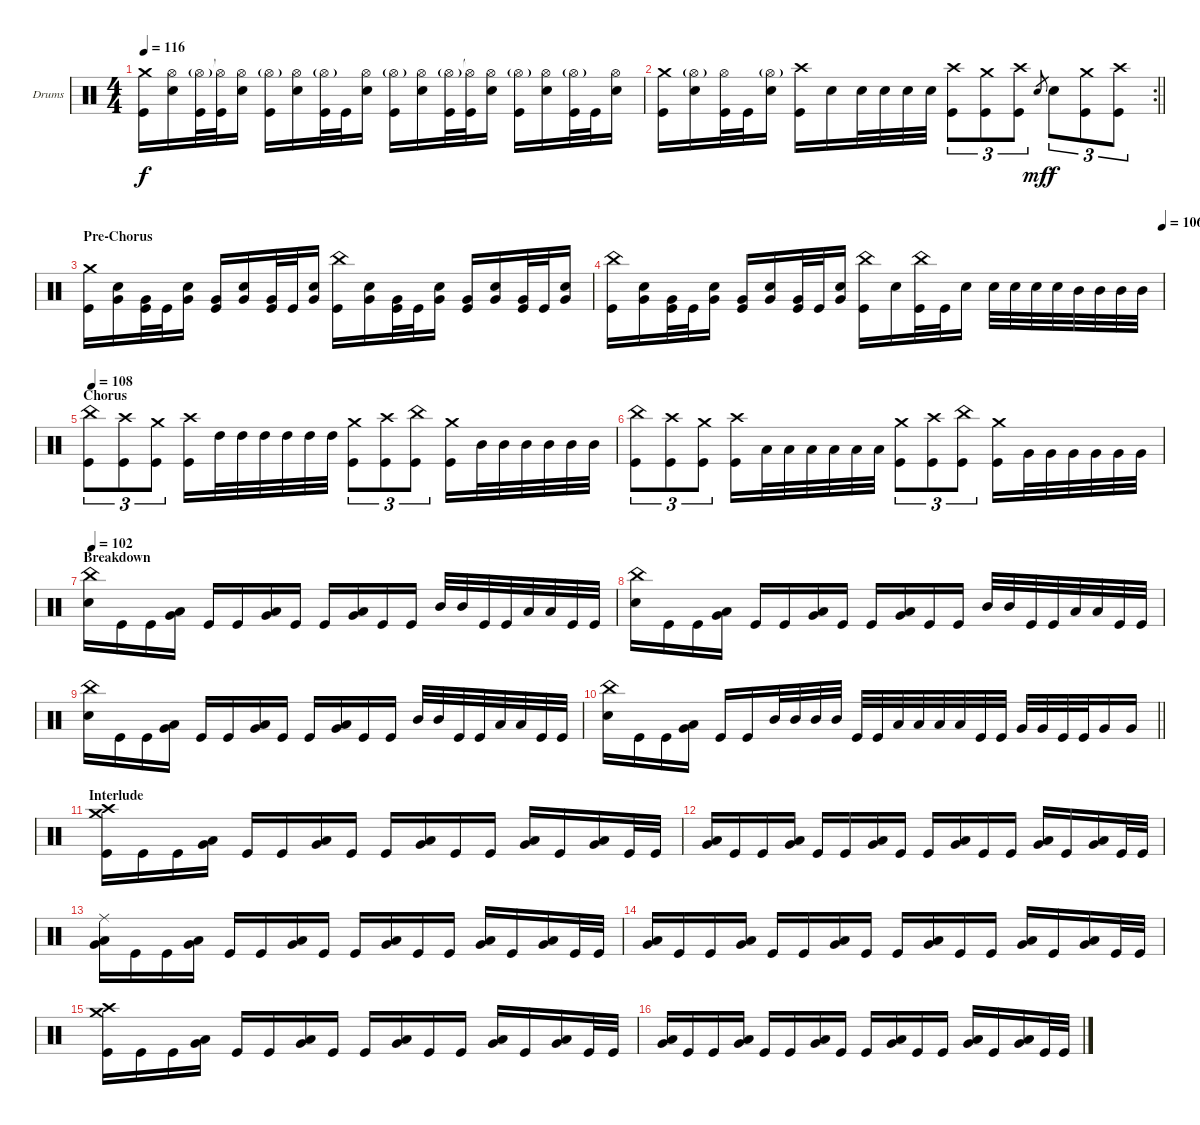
\bracketExtendMode groupsimilarinstruments
\firstSystemTrackNameOrientation horizontal
\otherSystemsTrackNameOrientation horizontal
\track ("Dave McClain" "Drums") {instrument percussion}
\staff {score}
\articulation defaults
\ts (4 4)
\tempo 116
\clef neutral
\ks c
("Crash medium (hit)" "Kick (hit)").16{dy f} ("Hi-Hat (open)" "Snare (hit) 2").16 ("Hi-Hat (open)"{g} "Kick (hit)").32 ("Hi-Hat (open)"{t} "Kick (hit)").32 ("Hi-Hat (open)" "Snare (hit) 2").16 ("Hi-Hat (open)"{g} "Kick (hit)").16 ("Hi-Hat (open)" "Snare (hit) 2").16 ("Hi-Hat (open)"{g} "Kick (hit)").32 "Kick (hit)".32 ("Hi-Hat (open)" "Snare (hit) 2").16 ("Hi-Hat (open)"{g} "Kick (hit)").16 ("Hi-Hat (open)" "Snare (hit) 2").16 ("Hi-Hat (open)"{g} "Kick (hit)").32 ("Hi-Hat (open)"{t} "Kick (hit)").32 ("Hi-Hat (open)" "Snare (hit) 2").16 ("Hi-Hat (open)"{g} "Kick (hit)").16 ("Hi-Hat (open)" "Snare (hit) 2").16 ("Hi-Hat (open)"{g} "Kick (hit)").32 "Kick (hit)".32 ("Hi-Hat (open)" "Snare (hit) 2").16 |
\rc 2
\barLineRight lightlight
("Crash medium (hit)" "Kick (hit)").16 ("Hi-Hat (open)"{g} "Snare (hit) 2").16 ("Hi-Hat (open)" "Kick (hit)").32 "Kick (hit)".32 ("Hi-Hat (open)"{g} "Snare (hit) 2").16 ("Crash high (hit)" "Kick (hit)").16 "Snare (hit) 2".16 "Snare (hit) 2".32 "Snare (hit) 2".32 "Snare (hit) 2".32 "Snare (hit) 2".32 ("Crash high (hit)" "Kick (hit)").8{tu (3 2)} ("Crash medium (hit)" "Kick (hit)").8{tu (3 2)} ("Crash high (hit)" "Kick (hit)").8{tu (3 2)} "Snare (hit) 2".8{gr dy mf} "Snare (hit) 2".8{tu (3 2) dy f} ("Crash medium (hit)" "Kick (hit)").8{tu (3 2)} ("Crash high (hit)" "Kick (hit)").8{tu (3 2)} |
\section ("" "Pre-Chorus")
("Crash medium (hit)" "Kick (hit)").16 ("Snare (hit) 2" "Very Low Tom (hit)").16 ("Very Low Tom (hit)" "Kick (hit)").32 "Kick (hit)".32 ("Snare (hit) 2" "Very Low Tom (hit)").16 ("Very Low Tom (hit)" "Kick (hit)").16 ("Snare (hit) 2" "Very Low Tom (hit)").16 ("Very Low Tom (hit)" "Kick (hit)").32 "Kick (hit)".32 ("Snare (hit) 2" "Very Low Tom (hit)").16 ("China (hit)" "Kick (hit)").16 ("Snare (hit) 2" "Very Low Tom (hit)").16 ("Very Low Tom (hit)" "Kick (hit)").32 "Kick (hit)".32 ("Snare (hit) 2" "Very Low Tom (hit)").16 ("Very Low Tom (hit)" "Kick (hit)").16 ("Snare (hit) 2" "Very Low Tom (hit)").16 ("Very Low Tom (hit)" "Kick (hit)").32 "Kick (hit)".32 ("Snare (hit) 2" "Very Low Tom (hit)").16 |
\tempo (106 1)
("China (hit)" "Kick (hit)").16 ("Snare (hit) 2" "Very Low Tom (hit)").16 ("Very Low Tom (hit)" "Kick (hit)").32 "Kick (hit)".32 ("Snare (hit) 2" "Very Low Tom (hit)").16 ("Very Low Tom (hit)" "Kick (hit)").16 ("Snare (hit) 2" "Very Low Tom (hit)").16 ("Very Low Tom (hit)" "Kick (hit)").32 "Kick (hit)".32 ("Snare (hit) 2" "Very Low Tom (hit)").16 ("China (hit)" "Kick (hit)").16 "Snare (hit) 2".16 ("China (hit)" "Kick (hit)").32 "Kick (hit)".32 "Snare (hit) 2".16 "Snare (hit) 2".32 "Snare (hit) 2".32 "Snare (hit) 2".32 "Snare (hit) 2".32 "Mid Tom (hit)".32 "Mid Tom (hit)".32 "Mid Tom (hit)".32 "Mid Tom (hit)".32 |
\section ("" "Chorus")
\tempo 108
("China (hit)" "Kick (hit)").8{tu (3 2)} ("Crash high (hit)" "Kick (hit)").8{tu (3 2)} ("Crash medium (hit)" "Kick (hit)").8{tu (3 2)} ("Crash high (hit)" "Kick (hit)").16 "High Tom (hit)".32 "High Tom (hit)".32 "High Tom (hit)".32 "High Tom (hit)".32 "High Tom (hit)".32 "High Tom (hit)".32 ("Crash medium (hit)" "Kick (hit)").8{tu (3 2)} ("Crash high (hit)" "Kick (hit)").8{tu (3 2)} ("China (hit)" "Kick (hit)").8{tu (3 2)} ("Crash medium (hit)" "Kick (hit)").16 "Mid Tom (hit)".32 "Mid Tom (hit)".32 "Mid Tom (hit)".32 "Mid Tom (hit)".32 "Mid Tom (hit)".32 "Mid Tom (hit)".32 |
("China (hit)" "Kick (hit)").8{tu (3 2)} ("Crash high (hit)" "Kick (hit)").8{tu (3 2)} ("Crash medium (hit)" "Kick (hit)").8{tu (3 2)} ("Crash high (hit)" "Kick (hit)").16 "Low Tom (hit)".32 "Low Tom (hit)".32 "Low Tom (hit)".32 "Low Tom (hit)".32 "Low Tom (hit)".32 "Low Tom (hit)".32 ("Crash medium (hit)" "Kick (hit)").8{tu (3 2)} ("Crash high (hit)" "Kick (hit)").8{tu (3 2)} ("China (hit)" "Kick (hit)").8{tu (3 2)} ("Crash medium (hit)" "Kick (hit)").16 "Very Low Tom (hit)".32 "Very Low Tom (hit)".32 "Very Low Tom (hit)".32 "Very Low Tom (hit)".32 "Very Low Tom (hit)".32 "Very Low Tom (hit)".32 |
\section ("" "Breakdown")
\tempo 102
("China (hit)" "Snare (hit) 2").16 "Kick (hit)".16 "Kick (hit)".16 ("Low Tom (hit)" "Very Low Tom (hit)").16 "Kick (hit)".16 "Kick (hit)".16 ("Low Tom (hit)" "Very Low Tom (hit)").16 "Kick (hit)".16 "Kick (hit)".16 ("Low Tom (hit)" "Very Low Tom (hit)").16 "Kick (hit)".16 "Kick (hit)".16 "Mid Tom (hit)".32 "Mid Tom (hit)".32 "Kick (hit)".32 "Kick (hit)".32 "Low Tom (hit)".32 "Low Tom (hit)".32 "Kick (hit)".32 "Kick (hit)".32 |
("China (hit)" "Snare (hit) 2").16 "Kick (hit)".16 "Kick (hit)".16 ("Low Tom (hit)" "Very Low Tom (hit)").16 "Kick (hit)".16 "Kick (hit)".16 ("Low Tom (hit)" "Very Low Tom (hit)").16 "Kick (hit)".16 "Kick (hit)".16 ("Low Tom (hit)" "Very Low Tom (hit)").16 "Kick (hit)".16 "Kick (hit)".16 "Mid Tom (hit)".32 "Mid Tom (hit)".32 "Kick (hit)".32 "Kick (hit)".32 "Low Tom (hit)".32 "Low Tom (hit)".32 "Kick (hit)".32 "Kick (hit)".32 |
("China (hit)" "Snare (hit) 2").16 "Kick (hit)".16 "Kick (hit)".16 ("Low Tom (hit)" "Very Low Tom (hit)").16 "Kick (hit)".16 "Kick (hit)".16 ("Low Tom (hit)" "Very Low Tom (hit)").16 "Kick (hit)".16 "Kick (hit)".16 ("Low Tom (hit)" "Very Low Tom (hit)").16 "Kick (hit)".16 "Kick (hit)".16 "Mid Tom (hit)".32 "Mid Tom (hit)".32 "Kick (hit)".32 "Kick (hit)".32 "Low Tom (hit)".32 "Low Tom (hit)".32 "Kick (hit)".32 "Kick (hit)".32 |
\barLineRight lightlight
("China (hit)" "Snare (hit) 2").16 "Kick (hit)".16 "Kick (hit)".16 ("Low Tom (hit)" "Very Low Tom (hit)").16 "Kick (hit)".16 "Kick (hit)".16 "Mid Tom (hit)".32 "Mid Tom (hit)".32 "Mid Tom (hit)".32 "Mid Tom (hit)".32 "Kick (hit)".32 "Kick (hit)".32 "Low Tom (hit)".32 "Low Tom (hit)".32 "Low Tom (hit)".32 "Low Tom (hit)".32 "Kick (hit)".32 "Kick (hit)".32 "Very Low Tom (hit)".32 "Very Low Tom (hit)".32 "Kick (hit)".32 "Kick (hit)".32 "Very Low Tom (hit)".16 "Very Low Tom (hit)".16 |
\section ("" "Interlude")
("Crash medium (hit)" "Crash high (hit)" "Kick (hit)").16 "Kick (hit)".16 "Kick (hit)".16 ("Low Tom (hit)" "Very Low Tom (hit)").16 "Kick (hit)".16 "Kick (hit)".16 ("Low Tom (hit)" "Very Low Tom (hit)").16 "Kick (hit)".16 "Kick (hit)".16 ("Low Tom (hit)" "Very Low Tom (hit)").16 "Kick (hit)".16 "Kick (hit)".16 ("Low Tom (hit)" "Very Low Tom (hit)").16 "Kick (hit)".16 ("Low Tom (hit)" "Very Low Tom (hit)").16 "Kick (hit)".32 "Kick (hit)".32 |
("Low Tom (hit)" "Very Low Tom (hit)").16 "Kick (hit)".16 "Kick (hit)".16 ("Low Tom (hit)" "Very Low Tom (hit)").16 "Kick (hit)".16 "Kick (hit)".16 ("Low Tom (hit)" "Very Low Tom (hit)").16 "Kick (hit)".16 "Kick (hit)".16 ("Low Tom (hit)" "Very Low Tom (hit)").16 "Kick (hit)".16 "Kick (hit)".16 ("Low Tom (hit)" "Very Low Tom (hit)").16 "Kick (hit)".16 ("Low Tom (hit)" "Very Low Tom (hit)").16 "Kick (hit)".32 "Kick (hit)".32 |
("Ride (middle)" "Low Tom (hit)" "Very Low Tom (hit)").16 "Kick (hit)".16 "Kick (hit)".16 ("Low Tom (hit)" "Very Low Tom (hit)").16 "Kick (hit)".16 "Kick (hit)".16 ("Low Tom (hit)" "Very Low Tom (hit)").16 "Kick (hit)".16 "Kick (hit)".16 ("Low Tom (hit)" "Very Low Tom (hit)").16 "Kick (hit)".16 "Kick (hit)".16 ("Low Tom (hit)" "Very Low Tom (hit)").16 "Kick (hit)".16 ("Low Tom (hit)" "Very Low Tom (hit)").16 "Kick (hit)".32 "Kick (hit)".32 |
("Low Tom (hit)" "Very Low Tom (hit)").16 "Kick (hit)".16 "Kick (hit)".16 ("Low Tom (hit)" "Very Low Tom (hit)").16 "Kick (hit)".16 "Kick (hit)".16 ("Low Tom (hit)" "Very Low Tom (hit)").16 "Kick (hit)".16 "Kick (hit)".16 ("Low Tom (hit)" "Very Low Tom (hit)").16 "Kick (hit)".16 "Kick (hit)".16 ("Low Tom (hit)" "Very Low Tom (hit)").16 "Kick (hit)".16 ("Low Tom (hit)" "Very Low Tom (hit)").16 "Kick (hit)".32 "Kick (hit)".32 |
("Crash medium (hit)" "Crash high (hit)" "Kick (hit)").16 "Kick (hit)".16 "Kick (hit)".16 ("Low Tom (hit)" "Very Low Tom (hit)").16 "Kick (hit)".16 "Kick (hit)".16 ("Low Tom (hit)" "Very Low Tom (hit)").16 "Kick (hit)".16 "Kick (hit)".16 ("Low Tom (hit)" "Very Low Tom (hit)").16 "Kick (hit)".16 "Kick (hit)".16 ("Low Tom (hit)" "Very Low Tom (hit)").16 "Kick (hit)".16 ("Low Tom (hit)" "Very Low Tom (hit)").16 "Kick (hit)".32 "Kick (hit)".32 |
("Low Tom (hit)" "Very Low Tom (hit)").16 "Kick (hit)".16 "Kick (hit)".16 ("Low Tom (hit)" "Very Low Tom (hit)").16 "Kick (hit)".16 "Kick (hit)".16 ("Low Tom (hit)" "Very Low Tom (hit)").16 "Kick (hit)".16 "Kick (hit)".16 ("Low Tom (hit)" "Very Low Tom (hit)").16 "Kick (hit)".16 "Kick (hit)".16 ("Low Tom (hit)" "Very Low Tom (hit)").16 "Kick (hit)".16 ("Low Tom (hit)" "Very Low Tom (hit)").16 "Kick (hit)".32 "Kick (hit)".32
